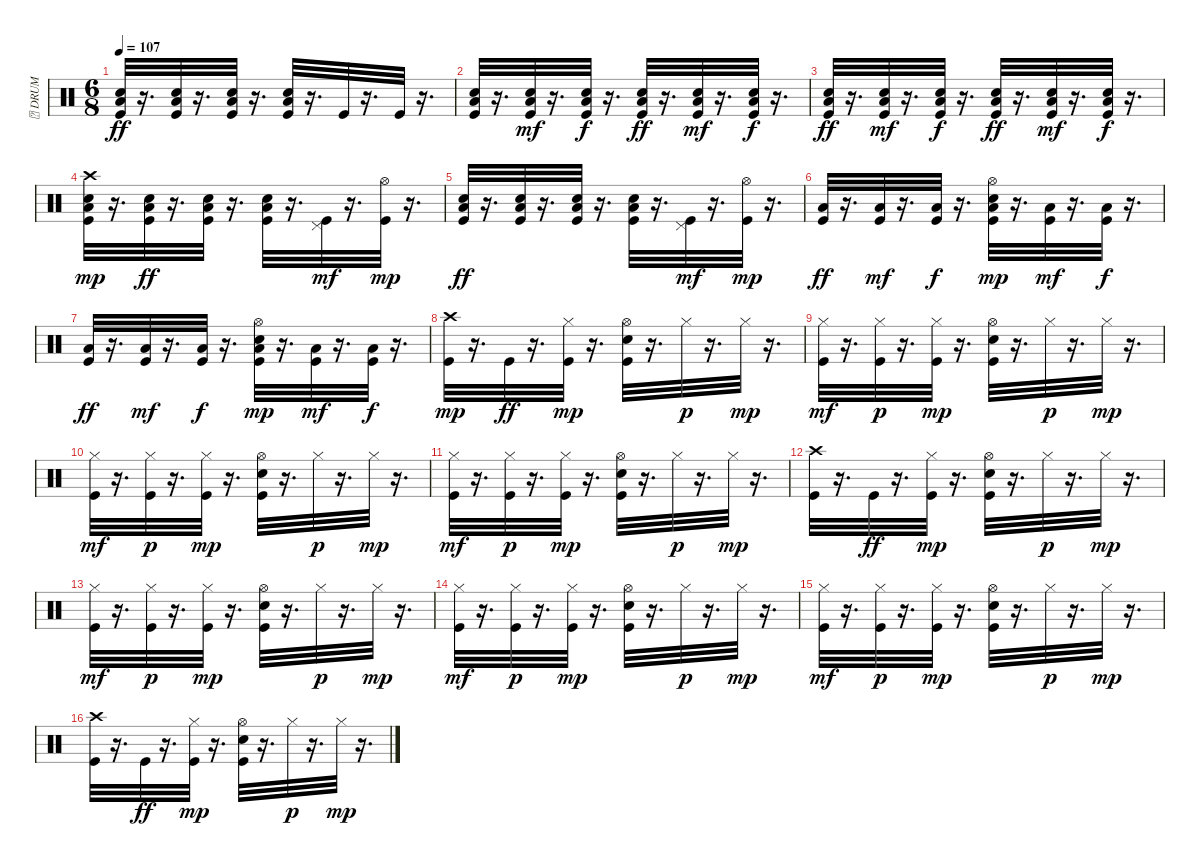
\track ("\t DRUM" "\t DRUM") {instrument percussion}
\staff {score}
\articulation defaults
\ts (6 8)
\tempo 107
\clef neutral
\ks c
("Kick (hit)" "Electric Snare (hit)" "Low Floor Tom (hit)").32{dy ff} r.16{d} ("Kick (hit)" "Electric Snare (hit)" "Low Floor Tom (hit)").32 r.16{d} ("Kick (hit)" "Electric Snare (hit)" "Low Floor Tom (hit)").32 r.16{d} ("Kick (hit)" "Electric Snare (hit)" "Low Floor Tom (hit)").32 r.16{d} "Kick (hit)".32 r.16{d} "Kick (hit)".32 r.16{d} |
("Kick (hit)" "Electric Snare (hit)" "Low Floor Tom (hit)").32 r.16{d} ("Kick (hit)" "Electric Snare (hit)" "Low Floor Tom (hit)").32{dy mf} r.16{d} ("Kick (hit)" "Electric Snare (hit)" "Low Floor Tom (hit)").32{dy f} r.16{d} ("Kick (hit)" "Electric Snare (hit)" "Low Floor Tom (hit)").32{dy ff} r.16{d} ("Kick (hit)" "Electric Snare (hit)" "Low Floor Tom (hit)").32{dy mf} r.16{d} ("Kick (hit)" "Electric Snare (hit)" "Low Floor Tom (hit)").32{dy f} r.16{d} |
("Kick (hit)" "Electric Snare (hit)" "Low Floor Tom (hit)").32{dy ff} r.16{d} ("Kick (hit)" "Electric Snare (hit)" "Low Floor Tom (hit)").32{dy mf} r.16{d} ("Kick (hit)" "Electric Snare (hit)" "Low Floor Tom (hit)").32{dy f} r.16{d} ("Kick (hit)" "Electric Snare (hit)" "Low Floor Tom (hit)").32{dy ff} r.16{d} ("Kick (hit)" "Electric Snare (hit)" "Low Floor Tom (hit)").32{dy mf} r.16{d} ("Kick (hit)" "Electric Snare (hit)" "Low Floor Tom (hit)").32{dy f} r.16{d} |
("Kick (hit)" "Electric Snare (hit)" "Low Floor Tom (hit)" "Crash high (hit)").32{dy mp} r.16{d} ("Kick (hit)" "Electric Snare (hit)" "Low Floor Tom (hit)").32{dy ff} r.16{d} ("Kick (hit)" "Electric Snare (hit)" "Low Floor Tom (hit)").32 r.16{d} ("Kick (hit)" "Electric Snare (hit)" "Low Floor Tom (hit)").32 r.16{d} ("Kick (hit)" "Pedal Hi-Hat (hit)").32{dy mf} r.16{d} ("Kick (hit)" "Hi-Hat (open)").32{dy mp} r.16{d} |
("Kick (hit)" "Electric Snare (hit)" "Low Floor Tom (hit)").32{dy ff} r.16{d} ("Kick (hit)" "Electric Snare (hit)" "Low Floor Tom (hit)").32 r.16{d} ("Kick (hit)" "Electric Snare (hit)" "Low Floor Tom (hit)").32 r.16{d} ("Kick (hit)" "Electric Snare (hit)" "Low Floor Tom (hit)").32 r.16{d} ("Kick (hit)" "Pedal Hi-Hat (hit)").32{dy mf} r.16{d} ("Kick (hit)" "Hi-Hat (open)").32{dy mp} r.16{d} |
("Kick (hit)" "Low Floor Tom (hit)").32{dy ff} r.16{d} ("Kick (hit)" "Low Floor Tom (hit)").32{dy mf} r.16{d} ("Kick (hit)" "Low Floor Tom (hit)").32{dy f} r.16{d} ("Kick (hit)" "Electric Snare (hit)" "Low Floor Tom (hit)" "Hi-Hat (open)").32{dy mp} r.16{d} ("Kick (hit)" "Low Floor Tom (hit)").32{dy mf} r.16{d} ("Kick (hit)" "Low Floor Tom (hit)").32{dy f} r.16{d} |
("Kick (hit)" "Low Floor Tom (hit)").32{dy ff} r.16{d} ("Kick (hit)" "Low Floor Tom (hit)").32{dy mf} r.16{d} ("Kick (hit)" "Low Floor Tom (hit)").32{dy f} r.16{d} ("Kick (hit)" "Electric Snare (hit)" "Low Floor Tom (hit)" "Hi-Hat (open)").32{dy mp} r.16{d} ("Kick (hit)" "Low Floor Tom (hit)").32{dy mf} r.16{d} ("Kick (hit)" "Low Floor Tom (hit)").32{dy f} r.16{d} |
("Kick (hit)" "Crash high (hit)").32{dy mp} r.16{d} "Kick (hit)".32{dy ff} r.16{d} ("Kick (hit)" "Hi-Hat (closed)").32{dy mp} r.16{d} ("Kick (hit)" "Electric Snare (hit)" "Hi-Hat (open)").32 r.16{d} "Hi-Hat (closed)".32{dy p} r.16{d} "Hi-Hat (closed)".32{dy mp} r.16{d} |
("Kick (hit)" "Hi-Hat (closed)").32{dy mf} r.16{d} ("Kick (hit)" "Hi-Hat (closed)").32{dy p} r.16{d} ("Kick (hit)" "Hi-Hat (closed)").32{dy mp} r.16{d} ("Kick (hit)" "Electric Snare (hit)" "Hi-Hat (open)").32 r.16{d} "Hi-Hat (closed)".32{dy p} r.16{d} "Hi-Hat (closed)".32{dy mp} r.16{d} |
("Kick (hit)" "Hi-Hat (closed)").32{dy mf} r.16{d} ("Kick (hit)" "Hi-Hat (closed)").32{dy p} r.16{d} ("Kick (hit)" "Hi-Hat (closed)").32{dy mp} r.16{d} ("Kick (hit)" "Electric Snare (hit)" "Hi-Hat (open)").32 r.16{d} "Hi-Hat (closed)".32{dy p} r.16{d} "Hi-Hat (closed)".32{dy mp} r.16{d} |
("Kick (hit)" "Hi-Hat (closed)").32{dy mf} r.16{d} ("Kick (hit)" "Hi-Hat (closed)").32{dy p} r.16{d} ("Kick (hit)" "Hi-Hat (closed)").32{dy mp} r.16{d} ("Kick (hit)" "Electric Snare (hit)" "Hi-Hat (open)").32 r.16{d} "Hi-Hat (closed)".32{dy p} r.16{d} "Hi-Hat (closed)".32{dy mp} r.16{d} |
("Kick (hit)" "Crash high (hit)").32 r.16{d} "Kick (hit)".32{dy ff} r.16{d} ("Kick (hit)" "Hi-Hat (closed)").32{dy mp} r.16{d} ("Kick (hit)" "Electric Snare (hit)" "Hi-Hat (open)").32 r.16{d} "Hi-Hat (closed)".32{dy p} r.16{d} "Hi-Hat (closed)".32{dy mp} r.16{d} |
("Kick (hit)" "Hi-Hat (closed)").32{dy mf} r.16{d} ("Kick (hit)" "Hi-Hat (closed)").32{dy p} r.16{d} ("Kick (hit)" "Hi-Hat (closed)").32{dy mp} r.16{d} ("Kick (hit)" "Electric Snare (hit)" "Hi-Hat (open)").32 r.16{d} "Hi-Hat (closed)".32{dy p} r.16{d} "Hi-Hat (closed)".32{dy mp} r.16{d} |
("Kick (hit)" "Hi-Hat (closed)").32{dy mf} r.16{d} ("Kick (hit)" "Hi-Hat (closed)").32{dy p} r.16{d} ("Kick (hit)" "Hi-Hat (closed)").32{dy mp} r.16{d} ("Kick (hit)" "Electric Snare (hit)" "Hi-Hat (open)").32 r.16{d} "Hi-Hat (closed)".32{dy p} r.16{d} "Hi-Hat (closed)".32{dy mp} r.16{d} |
("Kick (hit)" "Hi-Hat (closed)").32{dy mf} r.16{d} ("Kick (hit)" "Hi-Hat (closed)").32{dy p} r.16{d} ("Kick (hit)" "Hi-Hat (closed)").32{dy mp} r.16{d} ("Kick (hit)" "Electric Snare (hit)" "Hi-Hat (open)").32 r.16{d} "Hi-Hat (closed)".32{dy p} r.16{d} "Hi-Hat (closed)".32{dy mp} r.16{d} |
("Kick (hit)" "Crash high (hit)").32 r.16{d} "Kick (hit)".32{dy ff} r.16{d} ("Kick (hit)" "Hi-Hat (closed)").32{dy mp} r.16{d} ("Kick (hit)" "Electric Snare (hit)" "Hi-Hat (open)").32 r.16{d} "Hi-Hat (closed)".32{dy p} r.16{d} "Hi-Hat (closed)".32{dy mp} r.16{d}
